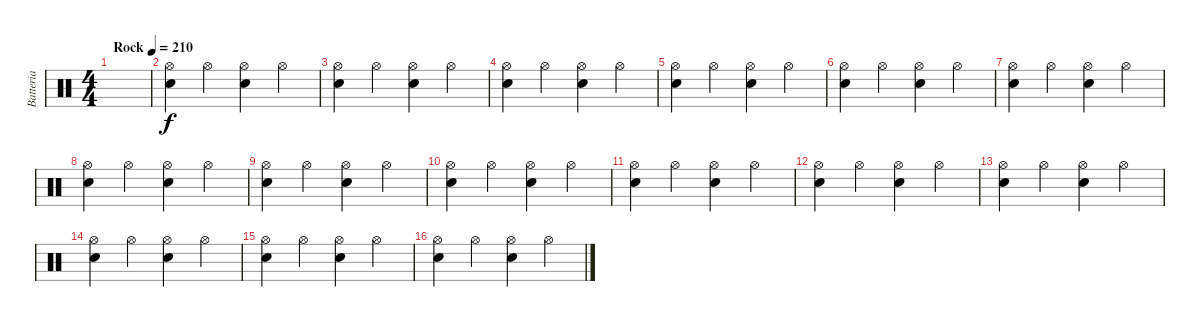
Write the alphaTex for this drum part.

\track ("Batteria" "Batteria") {instrument percussion}
\staff {score}
\articulation defaults
\ts (4 4)
\tempo (210 "Rock")
\clef neutral
\ks c
|
("Hi-Hat (open)" "Snare (hit) 2").4 "Hi-Hat (open)".4 ("Snare (hit) 2" "Hi-Hat (open)").4 "Hi-Hat (open)".4 |
("Hi-Hat (open)" "Snare (hit) 2").4 "Hi-Hat (open)".4 ("Snare (hit) 2" "Hi-Hat (open)").4 "Hi-Hat (open)".4 |
("Hi-Hat (open)" "Snare (hit) 2").4 "Hi-Hat (open)".4 ("Snare (hit) 2" "Hi-Hat (open)").4 "Hi-Hat (open)".4 |
("Hi-Hat (open)" "Snare (hit) 2").4 "Hi-Hat (open)".4 ("Snare (hit) 2" "Hi-Hat (open)").4 "Hi-Hat (open)".4 |
("Hi-Hat (open)" "Snare (hit) 2").4 "Hi-Hat (open)".4 ("Snare (hit) 2" "Hi-Hat (open)").4 "Hi-Hat (open)".4 |
("Hi-Hat (open)" "Snare (hit) 2").4 "Hi-Hat (open)".4 ("Snare (hit) 2" "Hi-Hat (open)").4 "Hi-Hat (open)".4 |
("Hi-Hat (open)" "Snare (hit) 2").4 "Hi-Hat (open)".4 ("Snare (hit) 2" "Hi-Hat (open)").4 "Hi-Hat (open)".4 |
("Hi-Hat (open)" "Snare (hit) 2").4 "Hi-Hat (open)".4 ("Snare (hit) 2" "Hi-Hat (open)").4 "Hi-Hat (open)".4 |
("Hi-Hat (open)" "Snare (hit) 2").4 "Hi-Hat (open)".4 ("Snare (hit) 2" "Hi-Hat (open)").4 "Hi-Hat (open)".4 |
("Hi-Hat (open)" "Snare (hit) 2").4 "Hi-Hat (open)".4 ("Snare (hit) 2" "Hi-Hat (open)").4 "Hi-Hat (open)".4 |
("Hi-Hat (open)" "Snare (hit) 2").4 "Hi-Hat (open)".4 ("Snare (hit) 2" "Hi-Hat (open)").4 "Hi-Hat (open)".4 |
("Hi-Hat (open)" "Snare (hit) 2").4 "Hi-Hat (open)".4 ("Snare (hit) 2" "Hi-Hat (open)").4 "Hi-Hat (open)".4 |
("Hi-Hat (open)" "Snare (hit) 2").4 "Hi-Hat (open)".4 ("Snare (hit) 2" "Hi-Hat (open)").4 "Hi-Hat (open)".4 |
("Hi-Hat (open)" "Snare (hit) 2").4 "Hi-Hat (open)".4 ("Snare (hit) 2" "Hi-Hat (open)").4 "Hi-Hat (open)".4 |
("Hi-Hat (open)" "Snare (hit) 2").4 "Hi-Hat (open)".4 ("Snare (hit) 2" "Hi-Hat (open)").4 "Hi-Hat (open)".4
